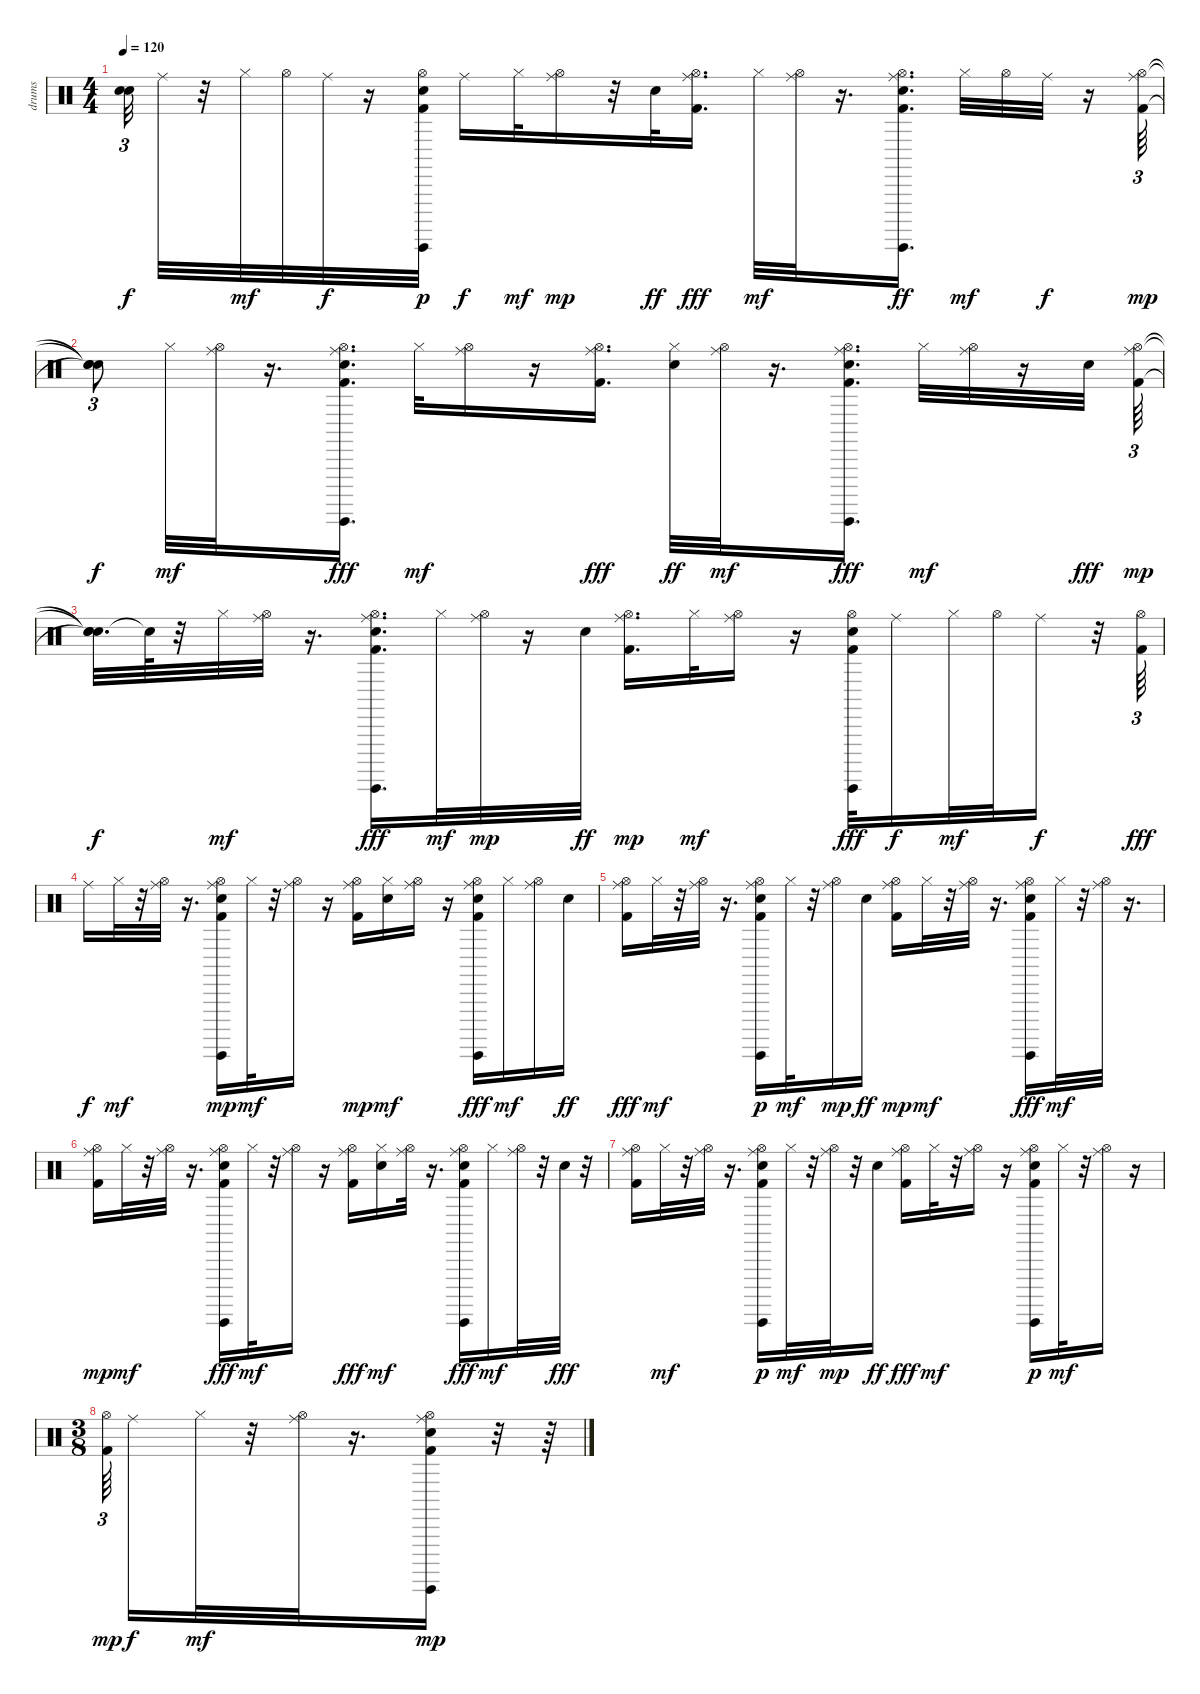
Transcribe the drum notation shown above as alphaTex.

\track ("drums                               " "drums     ") {instrument percussion}
\staff {score}
\articulation defaults
\ts (4 4)
\tempo 120
\clef neutral
\ks c
("Snare (hit)"{t} "Snare (hit)"{t}).32{tu (3 2) dy f} "Ride (middle)".32 r.32 "Hi-Hat (closed)".32{dy mf} "Hi-Hat (open)".32 "Ride (middle)".32{dy f} r.16 ("Guiro (hit)" "Kick (hit) 2" "Electric Snare (hit)" "Hi-Hat (open)").32{dy p} "Ride (middle)".16{dy f} "Hi-Hat (closed)".32{dy mf} ("Hi-Hat (open)" "Ride (middle)").16{dy mp} r.32 "Electric Snare (hit)".32{dy ff} ("Ride (middle)" "Hi-Hat (open)" "Kick (hit) 2").16{d dy fff} "Hi-Hat (closed)".32{dy mf} ("Hi-Hat (open)" "Ride (middle)").32 r.16{d} ("Kick (hit) 2" "Guiro (hit)" "Hi-Hat (open)" "Electric Snare (hit)" "Ride (middle)").16{d dy ff} "Hi-Hat (closed)".32{dy mf} "Hi-Hat (open)".32 "Ride (middle)".32{dy f} r.16 ("Kick (hit) 2" "Hi-Hat (open)" "Ride (middle)").64{tu (3 2) dy mp} |
("Snare (hit)"{t} "Snare (hit)"{t} "Snare (hit)"{t}).8{tu (3 2) dy f} "Hi-Hat (closed)".32{dy mf} ("Ride (middle)" "Hi-Hat (open)").32 r.16{d} ("Hi-Hat (open)" "Kick (hit) 2" "Guiro (hit)" "Electric Snare (hit)" "Ride (middle)").16{d dy fff} "Hi-Hat (closed)".32{dy mf} ("Ride (middle)" "Hi-Hat (open)").16 r.16 ("Ride (middle)" "Hi-Hat (open)" "Kick (hit) 2").16{d dy fff} ("Hi-Hat (closed)" "Electric Snare (hit)").32{dy ff} ("Ride (middle)" "Hi-Hat (open)").32{dy mf} r.16{d} ("Ride (middle)" "Guiro (hit)" "Electric Snare (hit)" "Hi-Hat (open)" "Kick (hit) 2").16{d dy fff} "Hi-Hat (closed)".32{dy mf} ("Ride (middle)" "Hi-Hat (open)").32 r.16 "Electric Snare (hit)".32{dy fff} ("Kick (hit) 2" "Hi-Hat (open)" "Ride (middle)").64{tu (3 2) dy mp} |
("Snare (hit)"{t} "Snare (hit)"{t} "Snare (hit)"{t}).32{d dy f} "Snare (hit)"{t}.64 r.32 "Hi-Hat (closed)".32{dy mf} ("Ride (middle)" "Hi-Hat (open)").32 r.16{d} ("Hi-Hat (open)" "Electric Snare (hit)" "Guiro (hit)" "Kick (hit) 2" "Ride (middle)").16{d dy fff} "Hi-Hat (closed)".32{dy mf} ("Ride (middle)" "Hi-Hat (open)").32{dy mp} r.16 "Electric Snare (hit)".32{dy ff} ("Kick (hit) 2" "Hi-Hat (open)" "Ride (middle)").16{d dy mp} "Hi-Hat (closed)".32{dy mf} ("Ride (middle)" "Hi-Hat (open)").16 r.16 ("Guiro (hit)" "Electric Snare (hit)" "Hi-Hat (open)" "Kick (hit) 2").32{dy fff} "Ride (middle)".16{dy f} "Hi-Hat (closed)".32{dy mf} "Hi-Hat (open)".32 "Ride (middle)".16{dy f} r.32 ("Hi-Hat (open)" "Kick (hit) 2").64{tu (3 2) dy fff} |
"Ride (middle)".16{dy f} "Hi-Hat (closed)".32{dy mf} r.32 ("Hi-Hat (open)" "Ride (middle)").32 r.16{d} ("Kick (hit) 2" "Guiro (hit)" "Electric Snare (hit)" "Hi-Hat (open)" "Ride (middle)").16{dy mp} "Hi-Hat (closed)".32{dy mf} r.32 ("Hi-Hat (open)" "Ride (middle)").16 r.16 ("Ride (middle)" "Kick (hit) 2" "Hi-Hat (open)").16{dy mp} ("Electric Snare (hit)" "Hi-Hat (closed)").16{dy mf} ("Hi-Hat (open)" "Ride (middle)").16 r.16 ("Hi-Hat (open)" "Electric Snare (hit)" "Kick (hit) 2" "Guiro (hit)" "Ride (middle)").16{dy fff} "Hi-Hat (closed)".16{dy mf} ("Hi-Hat (open)" "Ride (middle)").16 "Electric Snare (hit)".16{dy ff} |
("Hi-Hat (open)" "Kick (hit) 2" "Ride (middle)").16{dy fff} "Hi-Hat (closed)".32{dy mf} r.32 ("Hi-Hat (open)" "Ride (middle)").32 r.16{d} ("Electric Snare (hit)" "Kick (hit) 2" "Guiro (hit)" "Hi-Hat (open)" "Ride (middle)").16{dy p} "Hi-Hat (closed)".32{dy mf} r.32 ("Hi-Hat (open)" "Ride (middle)").16{dy mp} "Electric Snare (hit)".16{dy ff} ("Ride (middle)" "Kick (hit) 2" "Hi-Hat (open)").16{dy mp} "Hi-Hat (closed)".32{dy mf} r.32 ("Hi-Hat (open)" "Ride (middle)").32 r.16{d} ("Hi-Hat (open)" "Guiro (hit)" "Electric Snare (hit)" "Kick (hit) 2" "Ride (middle)").16{dy fff} "Hi-Hat (closed)".32{dy mf} r.32 ("Hi-Hat (open)" "Ride (middle)").32 r.16{d} |
("Kick (hit) 2" "Hi-Hat (open)" "Ride (middle)").16{dy mp} "Hi-Hat (closed)".32{dy mf} r.32 ("Ride (middle)" "Hi-Hat (open)").32 r.16{d} ("Hi-Hat (open)" "Kick (hit) 2" "Electric Snare (hit)" "Guiro (hit)" "Ride (middle)").16{dy fff} "Hi-Hat (closed)".32{dy mf} r.32 ("Ride (middle)" "Hi-Hat (open)").16 r.16 ("Ride (middle)" "Hi-Hat (open)" "Kick (hit) 2").16{dy fff} ("Electric Snare (hit)" "Hi-Hat (closed)").16{dy mf} ("Ride (middle)" "Hi-Hat (open)").32 r.16{d} ("Ride (middle)" "Hi-Hat (open)" "Guiro (hit)" "Electric Snare (hit)" "Kick (hit) 2").16{dy fff} "Hi-Hat (closed)".16{dy mf} ("Ride (middle)" "Hi-Hat (open)").32 r.32 "Electric Snare (hit)".32{dy fff} r.32 |
("Hi-Hat (open)" "Ride (middle)" "Kick (hit) 2").16 "Hi-Hat (closed)".32{dy mf} r.32 ("Ride (middle)" "Hi-Hat (open)").32 r.16{d} ("Guiro (hit)" "Kick (hit) 2" "Electric Snare (hit)" "Hi-Hat (open)" "Ride (middle)").16{dy p} "Hi-Hat (closed)".32{dy mf} r.32 ("Hi-Hat (open)" "Ride (middle)").32{dy mp} r.32 "Electric Snare (hit)".16{dy ff} ("Hi-Hat (open)" "Kick (hit) 2" "Ride (middle)").16{dy fff} "Hi-Hat (closed)".32{dy mf} r.32 ("Ride (middle)" "Hi-Hat (open)").16 r.16 ("Electric Snare (hit)" "Kick (hit) 2" "Guiro (hit)" "Hi-Hat (open)" "Ride (middle)").16{dy p} "Hi-Hat (closed)".32{dy mf} r.32 ("Hi-Hat (open)" "Ride (middle)").16 r.16 |
\ts (3 8)
("Kick (hit) 2" "Hi-Hat (open)").64{tu (3 2) dy mp beam splitsecondary} "Ride (middle)".16{dy f} "Hi-Hat (closed)".32{dy mf} r.32 ("Hi-Hat (open)" "Ride (middle)").32 r.16{d} ("Kick (hit) 2" "Electric Snare (hit)" "Hi-Hat (open)" "Guiro (hit)" "Ride (middle)").16{dy mp} r.32 r.64
